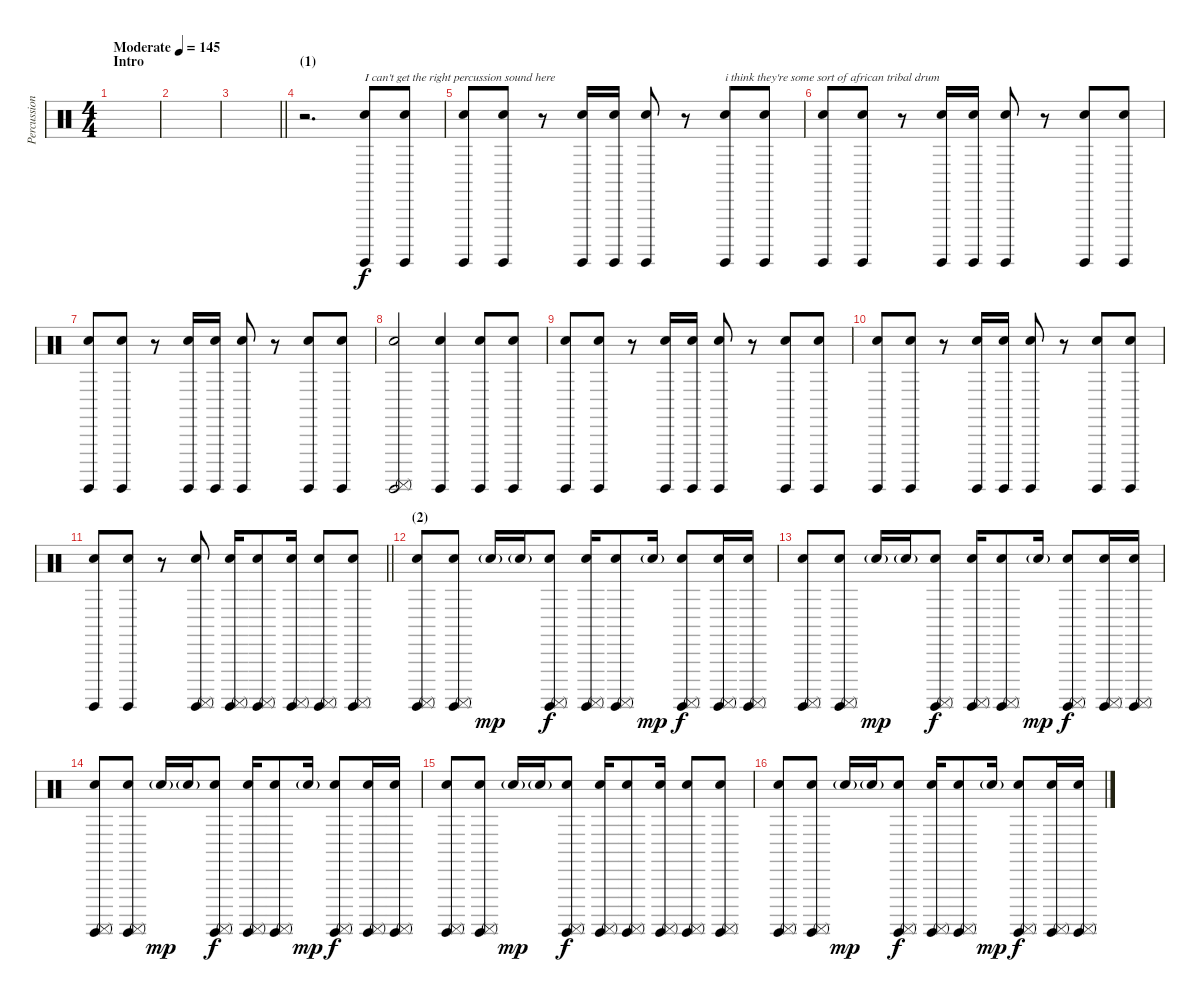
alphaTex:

\track ("Percussion" "Percussion") {instrument percussion}
\staff {score}
\articulation defaults
\ts (4 4)
\section ("" "Intro")
\tempo (145 "Moderate")
\clef neutral
\ks c
|
|
\barLineRight lightlight
|
\section ("" "(1)")
r.2{d} ("Snare (hit) 2" "Surdo (hit)").8{txt "I can't get the right percussion sound here" volume 7} ("Snare (hit) 2" "Surdo (hit)").8 |
("Snare (hit) 2" "Surdo (hit)").8 ("Snare (hit) 2" "Surdo (hit)").8 r.8 ("Snare (hit) 2" "Surdo (hit)").16 ("Snare (hit) 2" "Surdo (hit)").16 ("Snare (hit) 2" "Surdo (hit)").8 r.8 ("Snare (hit) 2" "Surdo (hit)").8{txt "i think they're some sort of african tribal drum"} ("Snare (hit) 2" "Surdo (hit)").8 |
("Snare (hit) 2" "Surdo (hit)").8 ("Snare (hit) 2" "Surdo (hit)").8 r.8 ("Snare (hit) 2" "Surdo (hit)").16 ("Snare (hit) 2" "Surdo (hit)").16 ("Snare (hit) 2" "Surdo (hit)").8 r.8 ("Snare (hit) 2" "Surdo (hit)").8 ("Snare (hit) 2" "Surdo (hit)").8 |
("Snare (hit) 2" "Surdo (hit)").8 ("Snare (hit) 2" "Surdo (hit)").8 r.8 ("Snare (hit) 2" "Surdo (hit)").16 ("Snare (hit) 2" "Surdo (hit)").16 ("Snare (hit) 2" "Surdo (hit)").8 r.8 ("Snare (hit) 2" "Surdo (hit)").8 ("Snare (hit) 2" "Surdo (hit)").8 |
("Snare (hit) 2" "Surdo (hit)" "Surdo (mute)").2 ("Snare (hit) 2" "Surdo (hit)").4 ("Snare (hit) 2" "Surdo (hit)").8 ("Snare (hit) 2" "Surdo (hit)").8 |
("Snare (hit) 2" "Surdo (hit)").8 ("Snare (hit) 2" "Surdo (hit)").8 r.8 ("Snare (hit) 2" "Surdo (hit)").16 ("Snare (hit) 2" "Surdo (hit)").16 ("Snare (hit) 2" "Surdo (hit)").8 r.8 ("Snare (hit) 2" "Surdo (hit)").8 ("Snare (hit) 2" "Surdo (hit)").8 |
("Snare (hit) 2" "Surdo (hit)").8 ("Snare (hit) 2" "Surdo (hit)").8 r.8 ("Snare (hit) 2" "Surdo (hit)").16 ("Snare (hit) 2" "Surdo (hit)").16 ("Snare (hit) 2" "Surdo (hit)").8 r.8 ("Snare (hit) 2" "Surdo (hit)").8 ("Snare (hit) 2" "Surdo (hit)").8 |
\barLineRight lightlight
("Snare (hit) 2" "Surdo (hit)").8 ("Snare (hit) 2" "Surdo (hit)").8 r.8 ("Snare (hit) 2" "Surdo (hit)" "Surdo (mute)").8{volume 13} ("Snare (hit) 2" "Surdo (hit)" "Surdo (mute)").16 ("Snare (hit) 2" "Surdo (hit)" "Surdo (mute)").8 ("Snare (hit) 2" "Surdo (hit)" "Surdo (mute)").16 ("Snare (hit) 2" "Surdo (hit)" "Surdo (mute)").8 ("Snare (hit) 2" "Surdo (hit)" "Surdo (mute)").8 |
\section ("" "(2)")
("Snare (hit) 2" "Surdo (hit)" "Surdo (mute)").8 ("Snare (hit) 2" "Surdo (hit)" "Surdo (mute)").8 "Snare (hit) 2"{g}.16{dy mp} "Snare (hit) 2"{g}.16 ("Snare (hit) 2" "Surdo (hit)" "Surdo (mute)").8{dy f} ("Snare (hit) 2" "Surdo (hit)" "Surdo (mute)").16 ("Snare (hit) 2" "Surdo (hit)" "Surdo (mute)").8 "Snare (hit) 2"{g}.16{dy mp} ("Snare (hit) 2" "Surdo (hit)" "Surdo (mute)").8{dy f} ("Snare (hit) 2" "Surdo (hit)" "Surdo (mute)").16 ("Snare (hit) 2" "Surdo (hit)" "Surdo (mute)").16 |
("Snare (hit) 2" "Surdo (hit)" "Surdo (mute)").8 ("Snare (hit) 2" "Surdo (hit)" "Surdo (mute)").8 "Snare (hit) 2"{g}.16{dy mp} "Snare (hit) 2"{g}.16 ("Snare (hit) 2" "Surdo (hit)" "Surdo (mute)").8{dy f} ("Snare (hit) 2" "Surdo (hit)" "Surdo (mute)").16 ("Snare (hit) 2" "Surdo (hit)" "Surdo (mute)").8 "Snare (hit) 2"{g}.16{dy mp} ("Snare (hit) 2" "Surdo (hit)" "Surdo (mute)").8{dy f} ("Snare (hit) 2" "Surdo (hit)" "Surdo (mute)").16 ("Snare (hit) 2" "Surdo (hit)" "Surdo (mute)").16 |
("Snare (hit) 2" "Surdo (hit)" "Surdo (mute)").8 ("Snare (hit) 2" "Surdo (hit)" "Surdo (mute)").8 "Snare (hit) 2"{g}.16{dy mp} "Snare (hit) 2"{g}.16 ("Snare (hit) 2" "Surdo (hit)" "Surdo (mute)").8{dy f} ("Snare (hit) 2" "Surdo (hit)" "Surdo (mute)").16 ("Snare (hit) 2" "Surdo (hit)" "Surdo (mute)").8 "Snare (hit) 2"{g}.16{dy mp} ("Snare (hit) 2" "Surdo (hit)" "Surdo (mute)").8{dy f} ("Snare (hit) 2" "Surdo (hit)" "Surdo (mute)").16 ("Snare (hit) 2" "Surdo (hit)" "Surdo (mute)").16 |
("Snare (hit) 2" "Surdo (hit)" "Surdo (mute)").8 ("Snare (hit) 2" "Surdo (hit)" "Surdo (mute)").8 "Snare (hit) 2"{g}.16{dy mp} "Snare (hit) 2"{g}.16 ("Snare (hit) 2" "Surdo (hit)" "Surdo (mute)").8{dy f} ("Snare (hit) 2" "Surdo (hit)" "Surdo (mute)").16 ("Snare (hit) 2" "Surdo (hit)" "Surdo (mute)").8 ("Snare (hit) 2" "Surdo (hit)" "Surdo (mute)").16 ("Snare (hit) 2" "Surdo (hit)" "Surdo (mute)").8 ("Snare (hit) 2" "Surdo (hit)" "Surdo (mute)").8 |
("Snare (hit) 2" "Surdo (hit)" "Surdo (mute)").8 ("Snare (hit) 2" "Surdo (hit)" "Surdo (mute)").8 "Snare (hit) 2"{g}.16{dy mp} "Snare (hit) 2"{g}.16 ("Snare (hit) 2" "Surdo (hit)" "Surdo (mute)").8{dy f} ("Snare (hit) 2" "Surdo (hit)" "Surdo (mute)").16 ("Snare (hit) 2" "Surdo (hit)" "Surdo (mute)").8 "Snare (hit) 2"{g}.16{dy mp} ("Snare (hit) 2" "Surdo (hit)" "Surdo (mute)").8{dy f} ("Snare (hit) 2" "Surdo (hit)" "Surdo (mute)").16 ("Snare (hit) 2" "Surdo (hit)" "Surdo (mute)").16
